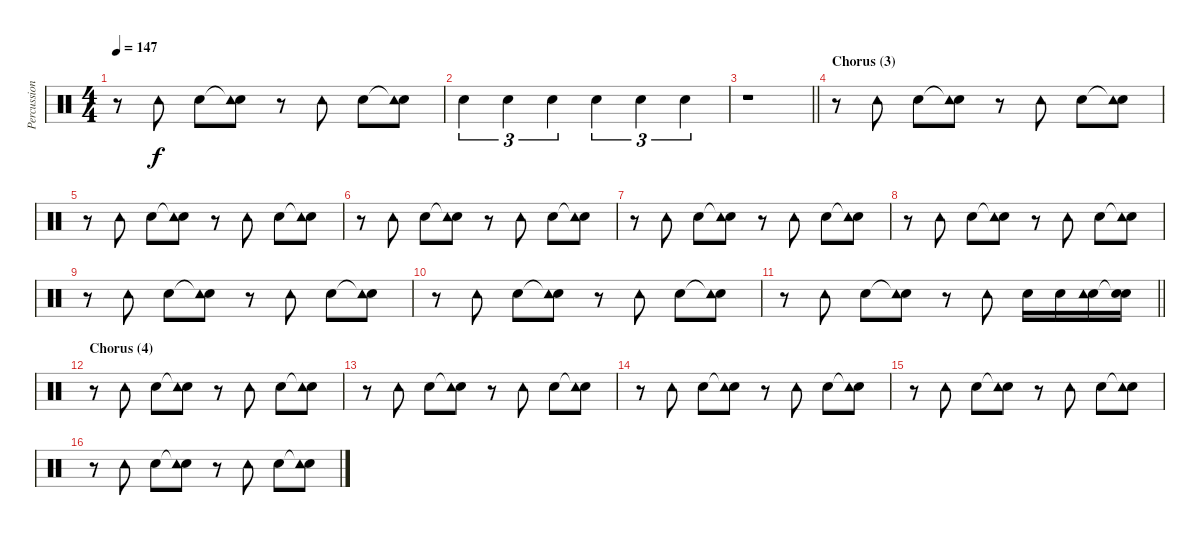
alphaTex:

\track ("Percussion" "Percussion") {instrument percussion}
\staff {score}
\articulation defaults
\ts (4 4)
\tempo 147
\clef neutral
\ks aminor
r.8{dy f} "Tambourine (hit)".8 "Hand Clap (hit)".8 ("Snare (hit)"{t} "Tambourine (hit)").8 r.8 "Tambourine (hit)".8 "Hand Clap (hit)".8 ("Snare (hit)"{t} "Tambourine (hit)").8 |
"Hand Clap (hit)".4{tu (3 2)} "Hand Clap (hit)".4{tu (3 2)} "Hand Clap (hit)".4{tu (3 2)} "Hand Clap (hit)".4{tu (3 2)} "Hand Clap (hit)".4{tu (3 2)} "Hand Clap (hit)".4{tu (3 2)} |
\barLineRight lightlight
r.1 |
\section ("" "Chorus (3)")
r.8 "Tambourine (hit)".8 "Hand Clap (hit)".8 ("Snare (hit)"{t} "Tambourine (hit)").8 r.8 "Tambourine (hit)".8 "Hand Clap (hit)".8 ("Snare (hit)"{t} "Tambourine (hit)").8 |
r.8 "Tambourine (hit)".8 "Hand Clap (hit)".8 ("Snare (hit)"{t} "Tambourine (hit)").8 r.8 "Tambourine (hit)".8 "Hand Clap (hit)".8 ("Snare (hit)"{t} "Tambourine (hit)").8 |
r.8 "Tambourine (hit)".8 "Hand Clap (hit)".8 ("Snare (hit)"{t} "Tambourine (hit)").8 r.8 "Tambourine (hit)".8 "Hand Clap (hit)".8 ("Snare (hit)"{t} "Tambourine (hit)").8 |
r.8 "Tambourine (hit)".8 "Hand Clap (hit)".8 ("Snare (hit)"{t} "Tambourine (hit)").8 r.8 "Tambourine (hit)".8 "Hand Clap (hit)".8 ("Snare (hit)"{t} "Tambourine (hit)").8 |
r.8 "Tambourine (hit)".8 "Hand Clap (hit)".8 ("Snare (hit)"{t} "Tambourine (hit)").8 r.8 "Tambourine (hit)".8 "Hand Clap (hit)".8 ("Snare (hit)"{t} "Tambourine (hit)").8 |
r.8 "Tambourine (hit)".8 "Hand Clap (hit)".8 ("Snare (hit)"{t} "Tambourine (hit)").8 r.8 "Tambourine (hit)".8 "Hand Clap (hit)".8 ("Snare (hit)"{t} "Tambourine (hit)").8 |
r.8 "Tambourine (hit)".8 "Hand Clap (hit)".8 ("Snare (hit)"{t} "Tambourine (hit)").8 r.8 "Tambourine (hit)".8 "Hand Clap (hit)".8 ("Snare (hit)"{t} "Tambourine (hit)").8 |
\barLineRight lightlight
r.8 "Tambourine (hit)".8 "Hand Clap (hit)".8 ("Snare (hit)"{t} "Tambourine (hit)").8 r.8 "Tambourine (hit)".8 "Hand Clap (hit)".16 "Hand Clap (hit)".16 ("Hand Clap (hit)" "Tambourine (hit)").16 ("Hand Clap (hit)" "Snare (hit)"{t}).16 |
\section ("" "Chorus (4)")
r.8 "Tambourine (hit)".8 "Hand Clap (hit)".8 ("Snare (hit)"{t} "Tambourine (hit)").8 r.8 "Tambourine (hit)".8 "Hand Clap (hit)".8 ("Snare (hit)"{t} "Tambourine (hit)").8 |
r.8 "Tambourine (hit)".8 "Hand Clap (hit)".8 ("Snare (hit)"{t} "Tambourine (hit)").8 r.8 "Tambourine (hit)".8 "Hand Clap (hit)".8 ("Snare (hit)"{t} "Tambourine (hit)").8 |
r.8 "Tambourine (hit)".8 "Hand Clap (hit)".8 ("Snare (hit)"{t} "Tambourine (hit)").8 r.8 "Tambourine (hit)".8 "Hand Clap (hit)".8 ("Snare (hit)"{t} "Tambourine (hit)").8 |
r.8 "Tambourine (hit)".8 "Hand Clap (hit)".8 ("Snare (hit)"{t} "Tambourine (hit)").8 r.8 "Tambourine (hit)".8 "Hand Clap (hit)".8 ("Snare (hit)"{t} "Tambourine (hit)").8 |
r.8 "Tambourine (hit)".8 "Hand Clap (hit)".8 ("Snare (hit)"{t} "Tambourine (hit)").8 r.8 "Tambourine (hit)".8 "Hand Clap (hit)".8 ("Snare (hit)"{t} "Tambourine (hit)").8
